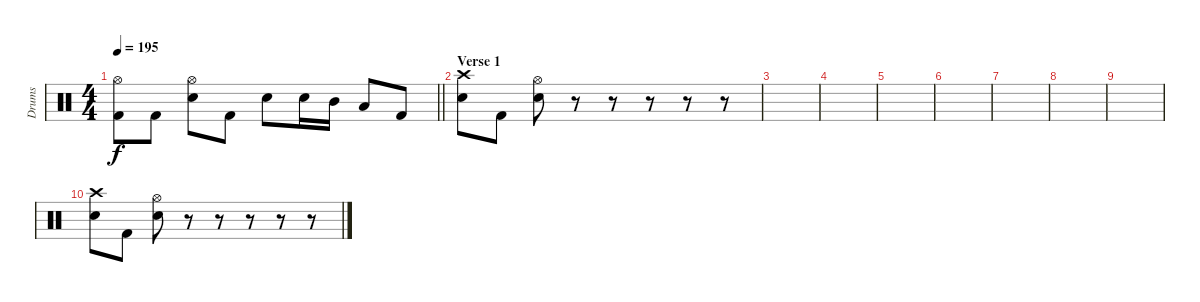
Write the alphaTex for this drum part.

\track ("Drums" "Drums") {instrument percussion}
\staff {score}
\articulation defaults
\ts (4 4)
\tempo 195
\clef neutral
\barLineRight lightlight
\ks c
("Hi-Hat (open)" "Kick (hit) 2").8{dy f} "Kick (hit) 2".8 ("Hi-Hat (open)" "Electric Snare (hit)").8 "Kick (hit) 2".8 "Electric Snare (hit)".8 "Electric Snare (hit)".16 "Mid Tom (hit)".16 "Low Tom (hit)".8 "Kick (hit) 2".8 |
\section ("" "Verse 1")
("Crash high (hit)" "Electric Snare (hit)").8 "Kick (hit) 2".8 ("Hi-Hat (open)" "Electric Snare (hit)").8 r.8 r.8 r.8 r.8 r.8 |
|
|
|
|
|
|
|
("Crash high (hit)" "Electric Snare (hit)").8 "Kick (hit) 2".8 ("Hi-Hat (open)" "Electric Snare (hit)").8 r.8 r.8 r.8 r.8 r.8
